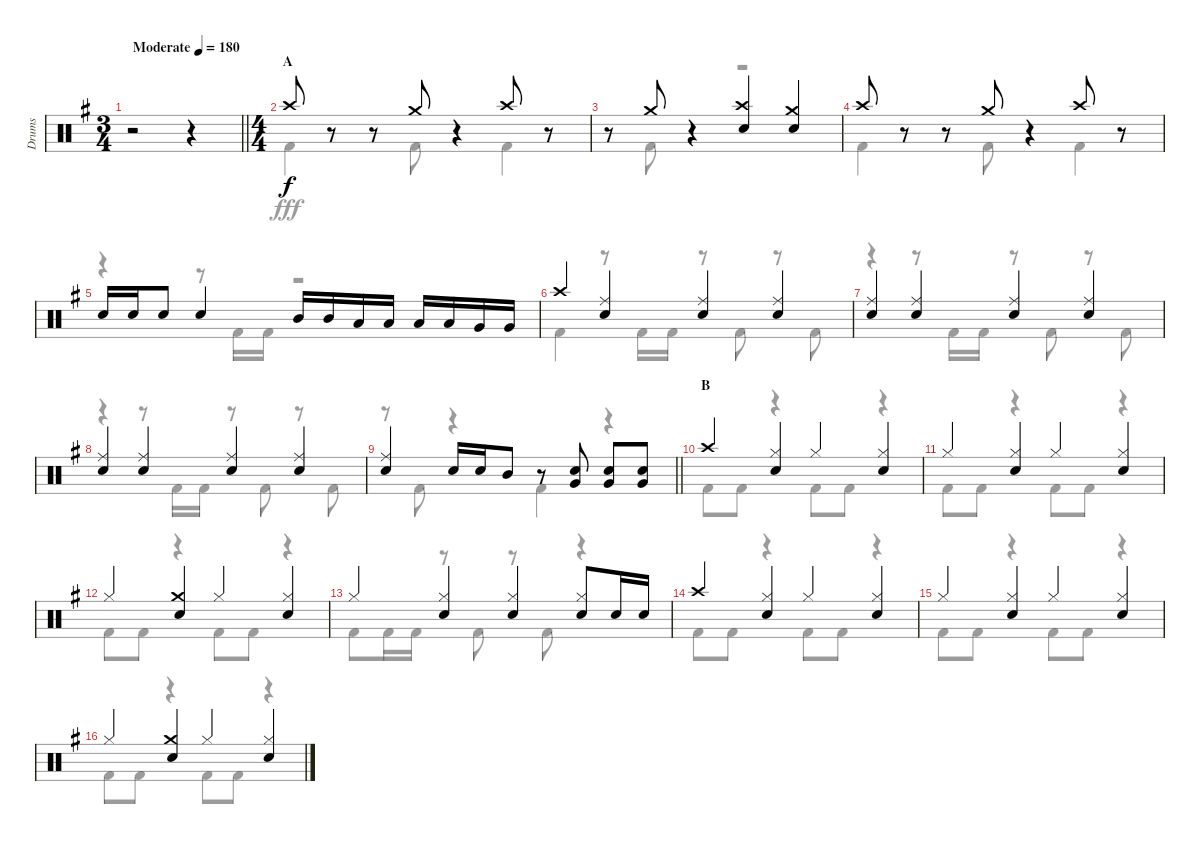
\track ("Drums" "Drums") {instrument percussion}
\staff {score}
\articulation defaults
\voice
\ts (3 4)
\tempo (180 "Moderate")
\clef neutral
\barLineRight lightlight
\ks g
r.2{dy f} r.4 |
\ts (4 4)
\section ("" "A")
"Crash high (hit)".8 r.8 r.8 "Crash medium (hit)".8 r.4 "Crash high (hit)".8 r.8 |
r.8 "Crash medium (hit)".8 r.4 ("Crash high (hit)" "Snare (hit) 2").4 ("Crash medium (hit)" "Snare (hit) 2").4 |
"Crash high (hit)".8 r.8 r.8 "Crash medium (hit)".8 r.4 "Crash high (hit)".8 r.8 |
"Snare (hit) 2".16 "Snare (hit) 2".16 "Snare (hit) 2".8 "Snare (hit) 2".4 "Mid Tom (hit)".16 "Mid Tom (hit)".16 "Low Tom (hit)".16 "Low Tom (hit)".16 "Low Tom (hit)".16 "Low Tom (hit)".16 "Very Low Tom (hit)".16 "Very Low Tom (hit)".16 |
"Crash high (hit)".4 ("Ride (middle)" "Snare (hit) 2").4 ("Ride (middle)" "Snare (hit) 2").4 ("Ride (middle)" "Snare (hit) 2").4 |
("Ride (middle)" "Snare (hit) 2").4 ("Ride (middle)" "Snare (hit) 2").4 ("Ride (middle)" "Snare (hit) 2").4 ("Ride (middle)" "Snare (hit) 2").4 |
("Ride (middle)" "Snare (hit) 2").4 ("Ride (middle)" "Snare (hit) 2").4 ("Ride (middle)" "Snare (hit) 2").4 ("Ride (middle)" "Snare (hit) 2").4 |
\barLineRight lightlight
("Ride (middle)" "Snare (hit) 2").4 "Snare (hit) 2".16 "Snare (hit) 2".16 "Mid Tom (hit)".8 r.8 ("Snare (hit) 2" "Very Low Tom (hit)").8 ("Snare (hit) 2" "Very Low Tom (hit)").8 ("Snare (hit) 2" "Very Low Tom (hit)").8 |
\section ("" "B")
"Crash high (hit)".4 ("Hi-Hat (closed)" "Snare (hit) 2").4 "Hi-Hat (closed)".4 ("Hi-Hat (closed)" "Snare (hit) 2").4 |
"Hi-Hat (closed)".4 ("Hi-Hat (closed)" "Snare (hit) 2").4 "Hi-Hat (closed)".4 ("Hi-Hat (closed)" "Snare (hit) 2").4 |
"Hi-Hat (closed)".4 ("Crash medium (hit)" "Snare (hit) 2").4 "Hi-Hat (closed)".4 ("Hi-Hat (closed)" "Snare (hit) 2").4 |
"Hi-Hat (closed)".4 ("Hi-Hat (closed)" "Snare (hit) 2").4 ("Hi-Hat (closed)" "Snare (hit) 2").4 ("Hi-Hat (closed)" "Snare (hit) 2").8 "Snare (hit) 2".16 "Snare (hit) 2".16 |
"Crash high (hit)".4 ("Hi-Hat (closed)" "Snare (hit) 2").4 "Hi-Hat (closed)".4 ("Hi-Hat (closed)" "Snare (hit) 2").4 |
"Hi-Hat (closed)".4 ("Hi-Hat (closed)" "Snare (hit) 2").4 "Hi-Hat (closed)".4 ("Hi-Hat (closed)" "Snare (hit) 2").4 |
"Hi-Hat (closed)".4 ("Crash medium (hit)" "Snare (hit) 2").4 "Hi-Hat (closed)".4 ("Hi-Hat (closed)" "Snare (hit) 2").4
\voice
\clef neutral
\ottava regular
\simile none
\barLineRight lightlight
\ks g
r.2{dy fff} r.4 |
"Kick (hit) 2".4 r.8 "Kick (hit) 2".8 r.4 "Kick (hit) 2".4 |
r.8 "Kick (hit) 2".8 r.4 r.2 |
"Kick (hit) 2".4 r.8 "Kick (hit) 2".8 r.4 "Kick (hit) 2".4 |
r.4 r.8 "Kick (hit) 2".16 "Kick (hit) 2".16 r.2 |
"Kick (hit) 2".4 r.8 "Kick (hit) 2".16 "Kick (hit) 2".16 r.8 "Kick (hit) 2".8 r.8 "Kick (hit) 2".8 |
r.4 r.8 "Kick (hit) 2".16 "Kick (hit) 2".16 r.8 "Kick (hit) 2".8 r.8 "Kick (hit) 2".8 |
r.4 r.8 "Kick (hit) 2".16 "Kick (hit) 2".16 r.8 "Kick (hit) 2".8 r.8 "Kick (hit) 2".8 |
\barLineRight lightlight
r.8 "Kick (hit) 2".8 r.4 "Kick (hit) 2".4 r.4 |
"Kick (hit) 2".8 "Kick (hit) 2".8 r.4 "Kick (hit) 2".8 "Kick (hit) 2".8 r.4 |
"Kick (hit) 2".8 "Kick (hit) 2".8 r.4 "Kick (hit) 2".8 "Kick (hit) 2".8 r.4 |
"Kick (hit) 2".8 "Kick (hit) 2".8 r.4 "Kick (hit) 2".8 "Kick (hit) 2".8 r.4 |
"Kick (hit) 2".8 "Kick (hit) 2".16 "Kick (hit) 2".16 r.8 "Kick (hit) 2".8 r.8 "Kick (hit) 2".8 r.4 |
"Kick (hit) 2".8 "Kick (hit) 2".8 r.4 "Kick (hit) 2".8 "Kick (hit) 2".8 r.4 |
"Kick (hit) 2".8 "Kick (hit) 2".8 r.4 "Kick (hit) 2".8 "Kick (hit) 2".8 r.4 |
"Kick (hit) 2".8 "Kick (hit) 2".8 r.4 "Kick (hit) 2".8 "Kick (hit) 2".8 r.4
